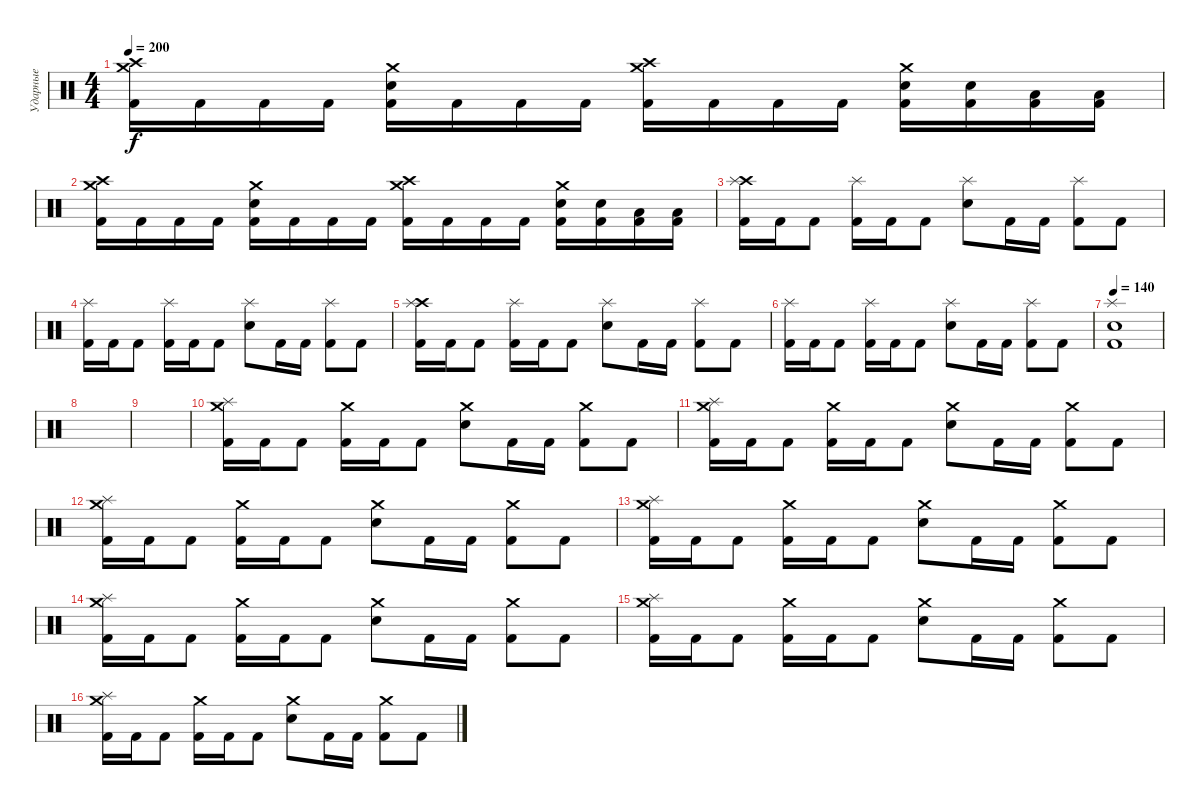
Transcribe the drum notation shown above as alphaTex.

\track ("Ударные" "Ударные") {instrument percussion}
\staff {score}
\articulation defaults
\ts (4 4)
\tempo 200
\clef neutral
\ks c
("Crash medium (hit)" "Crash high (hit)" "Kick (hit) 2").16{dy f} "Kick (hit) 2".16 "Kick (hit) 2".16 "Kick (hit) 2".16 ("Crash medium (hit)" "Electric Snare (hit)" "Kick (hit) 2").16 "Kick (hit) 2".16 "Kick (hit) 2".16 "Kick (hit) 2".16 ("Crash medium (hit)" "Crash high (hit)" "Kick (hit) 2").16 "Kick (hit) 2".16 "Kick (hit) 2".16 "Kick (hit) 2".16 ("Crash medium (hit)" "Electric Snare (hit)" "Kick (hit) 2").16 ("Electric Snare (hit)" "Kick (hit) 2").16 ("Low Tom (hit)" "Kick (hit) 2").16 ("Low Tom (hit)" "Kick (hit) 2").16 |
("Crash medium (hit)" "Crash high (hit)" "Kick (hit) 2").16 "Kick (hit) 2".16 "Kick (hit) 2".16 "Kick (hit) 2".16 ("Crash medium (hit)" "Electric Snare (hit)" "Kick (hit) 2").16 "Kick (hit) 2".16 "Kick (hit) 2".16 "Kick (hit) 2".16 ("Crash medium (hit)" "Crash high (hit)" "Kick (hit) 2").16 "Kick (hit) 2".16 "Kick (hit) 2".16 "Kick (hit) 2".16 ("Crash medium (hit)" "Electric Snare (hit)" "Kick (hit) 2").16 ("Electric Snare (hit)" "Kick (hit) 2").16 ("Low Tom (hit)" "Kick (hit) 2").16 ("Low Tom (hit)" "Kick (hit) 2").16 |
("Crash high (hit)" "Splash (hit)" "Kick (hit) 2").16 "Kick (hit) 2".16 "Kick (hit) 2".8 ("Splash (hit)" "Kick (hit) 2").16 "Kick (hit) 2".16 "Kick (hit) 2".8 ("Splash (hit)" "Electric Snare (hit)").8 "Kick (hit) 2".16 "Kick (hit) 2".16 ("Splash (hit)" "Kick (hit) 2").8 "Kick (hit) 2".8 |
("Splash (hit)" "Kick (hit) 2").16 "Kick (hit) 2".16 "Kick (hit) 2".8 ("Splash (hit)" "Kick (hit) 2").16 "Kick (hit) 2".16 "Kick (hit) 2".8 ("Splash (hit)" "Electric Snare (hit)").8 "Kick (hit) 2".16 "Kick (hit) 2".16 ("Splash (hit)" "Kick (hit) 2").8 "Kick (hit) 2".8 |
("Crash high (hit)" "Splash (hit)" "Kick (hit) 2").16 "Kick (hit) 2".16 "Kick (hit) 2".8 ("Splash (hit)" "Kick (hit) 2").16 "Kick (hit) 2".16 "Kick (hit) 2".8 ("Splash (hit)" "Electric Snare (hit)").8 "Kick (hit) 2".16 "Kick (hit) 2".16 ("Splash (hit)" "Kick (hit) 2").8 "Kick (hit) 2".8 |
("Splash (hit)" "Kick (hit) 2").16 "Kick (hit) 2".16 "Kick (hit) 2".8 ("Splash (hit)" "Kick (hit) 2").16 "Kick (hit) 2".16 "Kick (hit) 2".8 ("Splash (hit)" "Electric Snare (hit)").8 "Kick (hit) 2".16 "Kick (hit) 2".16 ("Splash (hit)" "Kick (hit) 2").8 "Kick (hit) 2".8 |
\tempo 140
("Splash (hit)" "Electric Snare (hit)" "Kick (hit) 2").1 |
|
|
("Crash medium (hit)" "Splash (hit)" "Kick (hit) 2").16 "Kick (hit) 2".16 "Kick (hit) 2".8 ("Crash medium (hit)" "Kick (hit) 2").16 "Kick (hit) 2".16 "Kick (hit) 2".8 ("Crash medium (hit)" "Electric Snare (hit)").8 "Kick (hit) 2".16 "Kick (hit) 2".16 ("Crash medium (hit)" "Kick (hit) 2").8 "Kick (hit) 2".8 |
("Crash medium (hit)" "Splash (hit)" "Kick (hit) 2").16 "Kick (hit) 2".16 "Kick (hit) 2".8 ("Crash medium (hit)" "Kick (hit) 2").16 "Kick (hit) 2".16 "Kick (hit) 2".8 ("Crash medium (hit)" "Electric Snare (hit)").8 "Kick (hit) 2".16 "Kick (hit) 2".16 ("Crash medium (hit)" "Kick (hit) 2").8 "Kick (hit) 2".8 |
("Crash medium (hit)" "Splash (hit)" "Kick (hit) 2").16 "Kick (hit) 2".16 "Kick (hit) 2".8 ("Crash medium (hit)" "Kick (hit) 2").16 "Kick (hit) 2".16 "Kick (hit) 2".8 ("Crash medium (hit)" "Electric Snare (hit)").8 "Kick (hit) 2".16 "Kick (hit) 2".16 ("Crash medium (hit)" "Kick (hit) 2").8 "Kick (hit) 2".8 |
("Crash medium (hit)" "Splash (hit)" "Kick (hit) 2").16 "Kick (hit) 2".16 "Kick (hit) 2".8 ("Crash medium (hit)" "Kick (hit) 2").16 "Kick (hit) 2".16 "Kick (hit) 2".8 ("Crash medium (hit)" "Electric Snare (hit)").8 "Kick (hit) 2".16 "Kick (hit) 2".16 ("Crash medium (hit)" "Kick (hit) 2").8 "Kick (hit) 2".8 |
("Crash medium (hit)" "Splash (hit)" "Kick (hit) 2").16 "Kick (hit) 2".16 "Kick (hit) 2".8 ("Crash medium (hit)" "Kick (hit) 2").16 "Kick (hit) 2".16 "Kick (hit) 2".8 ("Crash medium (hit)" "Electric Snare (hit)").8 "Kick (hit) 2".16 "Kick (hit) 2".16 ("Crash medium (hit)" "Kick (hit) 2").8 "Kick (hit) 2".8 |
("Crash medium (hit)" "Splash (hit)" "Kick (hit) 2").16 "Kick (hit) 2".16 "Kick (hit) 2".8 ("Crash medium (hit)" "Kick (hit) 2").16 "Kick (hit) 2".16 "Kick (hit) 2".8 ("Crash medium (hit)" "Electric Snare (hit)").8 "Kick (hit) 2".16 "Kick (hit) 2".16 ("Crash medium (hit)" "Kick (hit) 2").8 "Kick (hit) 2".8 |
("Crash medium (hit)" "Splash (hit)" "Kick (hit) 2").16 "Kick (hit) 2".16 "Kick (hit) 2".8 ("Crash medium (hit)" "Kick (hit) 2").16 "Kick (hit) 2".16 "Kick (hit) 2".8 ("Crash medium (hit)" "Electric Snare (hit)").8 "Kick (hit) 2".16 "Kick (hit) 2".16 ("Crash medium (hit)" "Kick (hit) 2").8 "Kick (hit) 2".8
